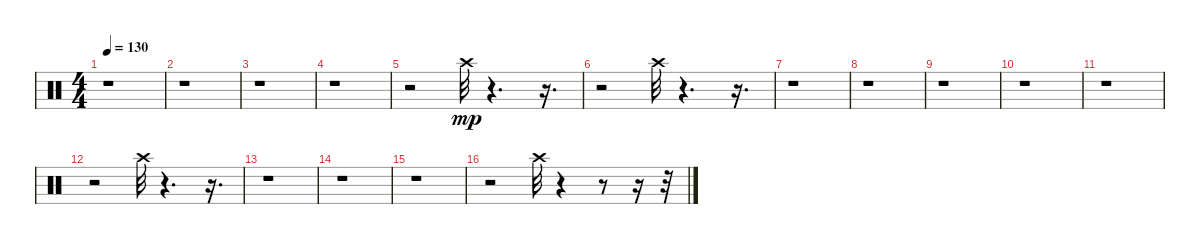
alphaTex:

\track "" {instrument percussion}
\staff {score}
\articulation defaults
\ts (4 4)
\tempo 130
\clef neutral
\ks c
r.1{dy mp} |
r.1 |
r.1 |
r.1 |
r.2 "Crash high (hit)".32 r.4{d} r.16{d} |
r.2 "Crash high (hit)".32 r.4{d} r.16{d} |
r.1 |
r.1 |
r.1 |
r.1 |
r.1 |
r.2 "Crash high (hit)".32 r.4{d} r.16{d} |
r.1 |
r.1 |
r.1 |
r.2 "Crash high (hit)".32 r.4 r.8 r.16 r.32
